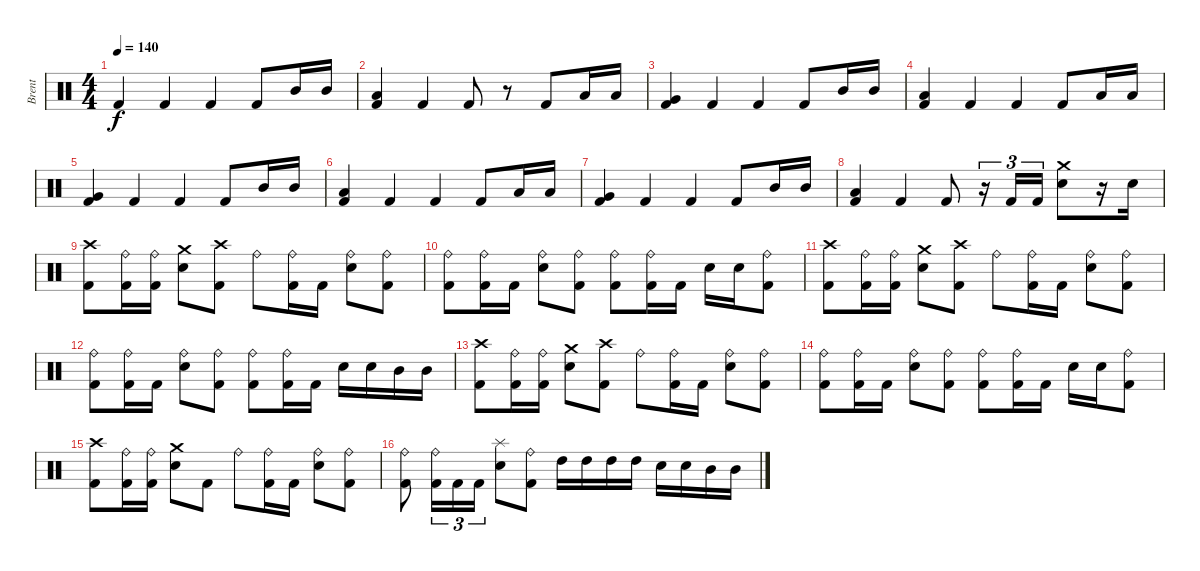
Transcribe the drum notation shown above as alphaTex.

\track ("Brent" "Brent") {instrument percussion}
\staff {score}
\articulation defaults
\ts (4 4)
\tempo 140
\clef neutral
\ks c "Kick (hit) 2".4{dy f} "Kick (hit) 2".4 "Kick (hit) 2".4 "Kick (hit) 2".8 "Mid Tom (hit)".16 "Mid Tom (hit)".16
|
("Low Tom (hit)" "Kick (hit) 2").4 "Kick (hit) 2".4 "Kick (hit) 2".8 r.8 "Kick (hit) 2".8 "Low Tom (hit)".16 "Low Tom (hit)".16 |
("Very Low Tom (hit)" "Kick (hit) 2").4 "Kick (hit) 2".4 "Kick (hit) 2".4 "Kick (hit) 2".8 "Mid Tom (hit)".16 "Mid Tom (hit)".16 |
("Low Tom (hit)" "Kick (hit) 2").4 "Kick (hit) 2".4 "Kick (hit) 2".4 "Kick (hit) 2".8 "Low Tom (hit)".16 "Low Tom (hit)".16 |
("Very Low Tom (hit)" "Kick (hit) 2").4 "Kick (hit) 2".4 "Kick (hit) 2".4 "Kick (hit) 2".8 "Mid Tom (hit)".16 "Mid Tom (hit)".16 |
("Low Tom (hit)" "Kick (hit) 2").4 "Kick (hit) 2".4 "Kick (hit) 2".4 "Kick (hit) 2".8 "Low Tom (hit)".16 "Low Tom (hit)".16 |
("Very Low Tom (hit)" "Kick (hit) 2").4 "Kick (hit) 2".4 "Kick (hit) 2".4 "Kick (hit) 2".8 "Mid Tom (hit)".16 "Mid Tom (hit)".16 |
("Low Tom (hit)" "Kick (hit) 2").4 "Kick (hit) 2".4 "Kick (hit) 2".8 r.16{tu (3 2)} "Kick (hit) 2".16{tu (3 2)} "Kick (hit) 2".16{tu (3 2)} ("Crash medium (hit)" "Snare (hit) 2").8 r.16 "Snare (hit) 2".16 |
("Crash high (hit)" "Kick (hit) 2").8 ("Ride (bell)" "Kick (hit) 2").16 ("Ride (bell)" "Kick (hit) 2").16 ("Crash medium (hit)" "Snare (hit) 2").8 ("Crash high (hit)" "Kick (hit) 2").8 "Ride (bell)".8 ("Ride (bell)" "Kick (hit) 2").16 "Kick (hit) 2".16 ("Ride (bell)" "Snare (hit) 2").8 ("Ride (bell)" "Kick (hit) 2").8 |
("Ride (bell)" "Kick (hit) 2").8 ("Ride (bell)" "Kick (hit) 2").16 "Kick (hit) 2".16 ("Ride (bell)" "Snare (hit) 2").8 ("Ride (bell)" "Kick (hit) 2").8 ("Ride (bell)" "Kick (hit) 2").8 ("Ride (bell)" "Kick (hit) 2").16 "Kick (hit) 2".16 "Snare (hit) 2".16 "Snare (hit) 2".16 ("Ride (bell)" "Kick (hit) 2").8 |
("Crash high (hit)" "Kick (hit) 2").8 ("Ride (bell)" "Kick (hit) 2").16 ("Ride (bell)" "Kick (hit) 2").16 ("Crash medium (hit)" "Snare (hit) 2").8 ("Crash high (hit)" "Kick (hit) 2").8 "Ride (bell)".8 ("Ride (bell)" "Kick (hit) 2").16 "Kick (hit) 2".16 ("Ride (bell)" "Snare (hit) 2").8 ("Ride (bell)" "Kick (hit) 2").8 |
("Ride (bell)" "Kick (hit) 2").8 ("Ride (bell)" "Kick (hit) 2").16 "Kick (hit) 2".16 ("Ride (bell)" "Snare (hit) 2").8 ("Ride (bell)" "Kick (hit) 2").8 ("Ride (bell)" "Kick (hit) 2").8 ("Ride (bell)" "Kick (hit) 2").16 "Kick (hit) 2".16 "Snare (hit) 2".16 "Snare (hit) 2".16 "Mid Tom (hit)".16 "Mid Tom (hit)".16 |
("Crash high (hit)" "Kick (hit) 2").8 ("Ride (bell)" "Kick (hit) 2").16 ("Ride (bell)" "Kick (hit) 2").16 ("Crash medium (hit)" "Snare (hit) 2").8 ("Crash high (hit)" "Kick (hit) 2").8 "Ride (bell)".8 ("Ride (bell)" "Kick (hit) 2").16 "Kick (hit) 2".16 ("Ride (bell)" "Snare (hit) 2").8 ("Ride (bell)" "Kick (hit) 2").8 |
("Ride (bell)" "Kick (hit) 2").8 ("Ride (bell)" "Kick (hit) 2").16 "Kick (hit) 2".16 ("Ride (bell)" "Snare (hit) 2").8 ("Ride (bell)" "Kick (hit) 2").8 ("Ride (bell)" "Kick (hit) 2").8 ("Ride (bell)" "Kick (hit) 2").16 "Kick (hit) 2".16 "Snare (hit) 2".16 "Snare (hit) 2".16 ("Ride (bell)" "Kick (hit) 2").8 |
("Crash high (hit)" "Kick (hit) 2").8 ("Ride (bell)" "Kick (hit) 2").16 ("Ride (bell)" "Kick (hit) 2").16 ("Crash medium (hit)" "Snare (hit) 2").8 "Kick (hit) 2".8 "Ride (bell)".8 ("Ride (bell)" "Kick (hit) 2").16 "Kick (hit) 2".16 ("Ride (bell)" "Snare (hit) 2").8 ("Ride (bell)" "Kick (hit) 2").8 |
("Ride (bell)" "Kick (hit) 2").8 ("Ride (bell)" "Kick (hit) 2").16{tu (3 2)} "Kick (hit) 2".16{tu (3 2)} "Kick (hit) 2".16{tu (3 2)} ("Splash (hit)" "Snare (hit) 2").8 ("Ride (bell)" "Kick (hit) 2").8 "High Tom (hit)".16 "High Tom (hit)".16 "High Tom (hit)".16 "High Tom (hit)".16 "Snare (hit) 2".16 "Snare (hit) 2".16 "Mid Tom (hit)".16 "Mid Tom (hit)".16
